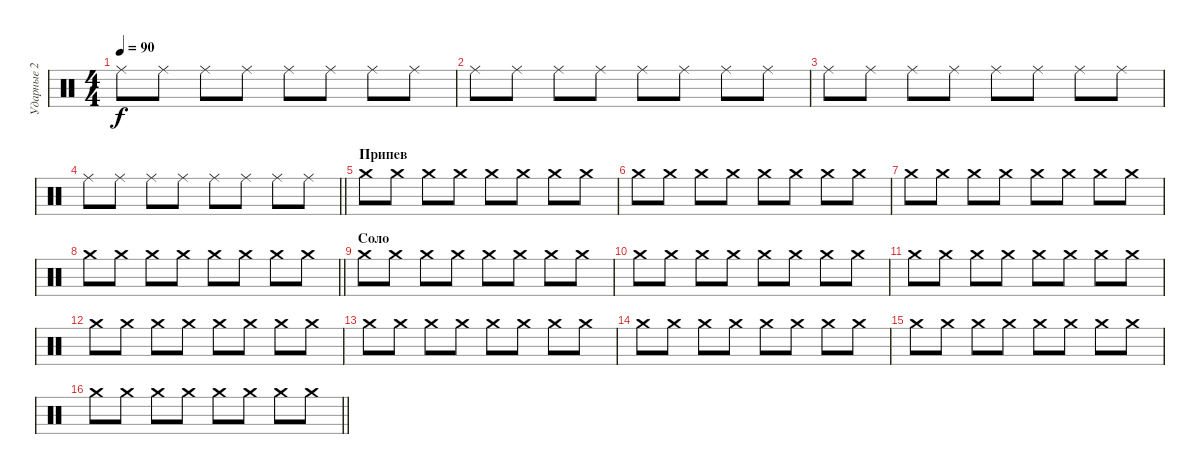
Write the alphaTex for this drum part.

\track ("Ударные 2" "Ударные 2") {instrument percussion}
\staff {score}
\articulation defaults
\ts (4 4)
\tempo 90
\clef neutral
\ks c "Ride (middle)".8{dy f} "Ride (middle)".8 "Ride (middle)".8 "Ride (middle)".8 "Ride (middle)".8 "Ride (middle)".8 "Ride (middle)".8 "Ride (middle)".8
|
"Ride (middle)".8 "Ride (middle)".8 "Ride (middle)".8 "Ride (middle)".8 "Ride (middle)".8 "Ride (middle)".8 "Ride (middle)".8 "Ride (middle)".8 |
"Ride (middle)".8 "Ride (middle)".8 "Ride (middle)".8 "Ride (middle)".8 "Ride (middle)".8 "Ride (middle)".8 "Ride (middle)".8 "Ride (middle)".8 |
\barLineRight lightlight "Ride (middle)".8 "Ride (middle)".8 "Ride (middle)".8 "Ride (middle)".8 "Ride (middle)".8 "Ride (middle)".8 "Ride (middle)".8 "Ride (middle)".8
|
\section ("" "Припев")
"Crash medium (hit)".8 "Crash medium (hit)".8 "Crash medium (hit)".8 "Crash medium (hit)".8 "Crash medium (hit)".8 "Crash medium (hit)".8 "Crash medium (hit)".8 "Crash medium (hit)".8 |
"Crash medium (hit)".8 "Crash medium (hit)".8 "Crash medium (hit)".8 "Crash medium (hit)".8 "Crash medium (hit)".8 "Crash medium (hit)".8 "Crash medium (hit)".8 "Crash medium (hit)".8 |
"Crash medium (hit)".8 "Crash medium (hit)".8 "Crash medium (hit)".8 "Crash medium (hit)".8 "Crash medium (hit)".8 "Crash medium (hit)".8 "Crash medium (hit)".8 "Crash medium (hit)".8 |
\barLineRight lightlight "Crash medium (hit)".8 "Crash medium (hit)".8 "Crash medium (hit)".8 "Crash medium (hit)".8 "Crash medium (hit)".8 "Crash medium (hit)".8 "Crash medium (hit)".8 "Crash medium (hit)".8
|
\section ("" "Соло")
"Crash medium (hit)".8 "Crash medium (hit)".8 "Crash medium (hit)".8 "Crash medium (hit)".8 "Crash medium (hit)".8 "Crash medium (hit)".8 "Crash medium (hit)".8 "Crash medium (hit)".8 |
"Crash medium (hit)".8 "Crash medium (hit)".8 "Crash medium (hit)".8 "Crash medium (hit)".8 "Crash medium (hit)".8 "Crash medium (hit)".8 "Crash medium (hit)".8 "Crash medium (hit)".8 |
"Crash medium (hit)".8 "Crash medium (hit)".8 "Crash medium (hit)".8 "Crash medium (hit)".8 "Crash medium (hit)".8 "Crash medium (hit)".8 "Crash medium (hit)".8 "Crash medium (hit)".8 |
"Crash medium (hit)".8 "Crash medium (hit)".8 "Crash medium (hit)".8 "Crash medium (hit)".8 "Crash medium (hit)".8 "Crash medium (hit)".8 "Crash medium (hit)".8 "Crash medium (hit)".8 |
"Crash medium (hit)".8 "Crash medium (hit)".8 "Crash medium (hit)".8 "Crash medium (hit)".8 "Crash medium (hit)".8 "Crash medium (hit)".8 "Crash medium (hit)".8 "Crash medium (hit)".8 |
"Crash medium (hit)".8 "Crash medium (hit)".8 "Crash medium (hit)".8 "Crash medium (hit)".8 "Crash medium (hit)".8 "Crash medium (hit)".8 "Crash medium (hit)".8 "Crash medium (hit)".8 |
"Crash medium (hit)".8 "Crash medium (hit)".8 "Crash medium (hit)".8 "Crash medium (hit)".8 "Crash medium (hit)".8 "Crash medium (hit)".8 "Crash medium (hit)".8 "Crash medium (hit)".8 |
\barLineRight lightlight "Crash medium (hit)".8 "Crash medium (hit)".8 "Crash medium (hit)".8 "Crash medium (hit)".8 "Crash medium (hit)".8 "Crash medium (hit)".8 "Crash medium (hit)".8 "Crash medium (hit)".8
